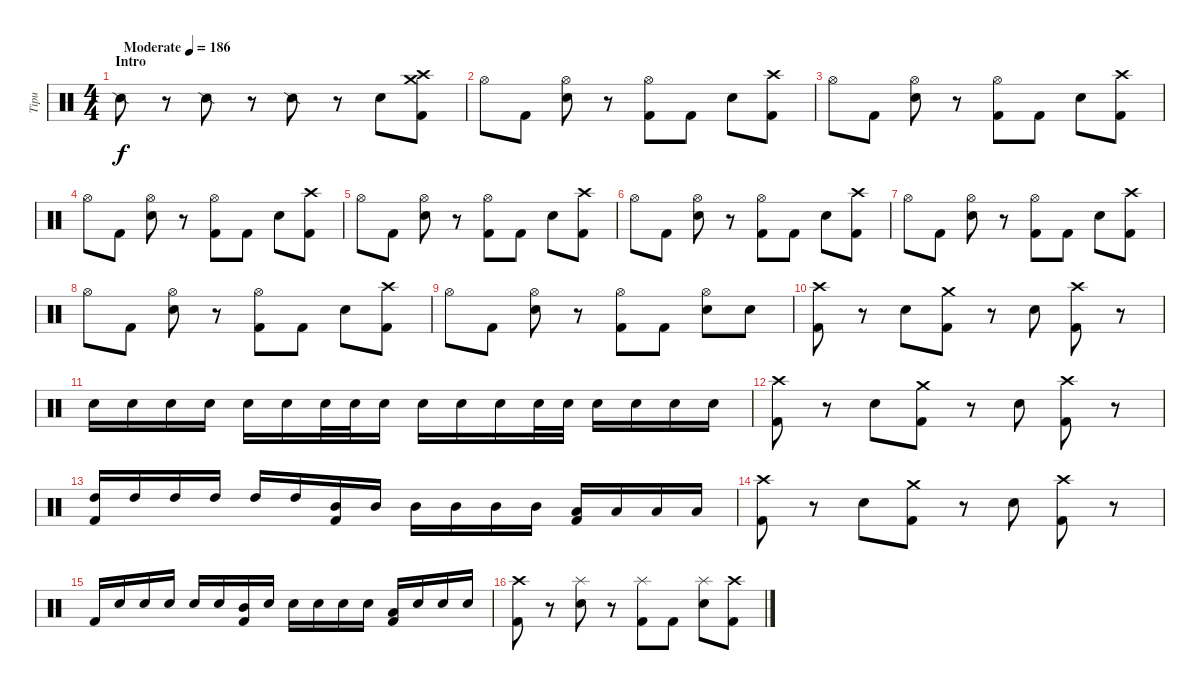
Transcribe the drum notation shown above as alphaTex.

\track ("Tipu" "Tipu") {instrument percussion}
\staff {score}
\articulation defaults
\ts (4 4)
\section ("" "Intro")
\tempo (186 "Moderate")
\clef neutral
\ks c "Snare (side stick) 2".8{dy f}
r.8 "Snare (side stick) 2".8 r.8 "Snare (side stick) 2".8 r.8 "Electric Snare (hit)".8 ("Kick (hit) 2" "Crash medium (hit)" "Crash high (hit)").8 |
"Hi-Hat (open)".8 "Kick (hit) 2".8 ("Hi-Hat (open)" "Electric Snare (hit)").8 r.8 ("Hi-Hat (open)" "Kick (hit) 2").8 "Kick (hit) 2".8 "Electric Snare (hit)".8 ("Crash high (hit)" "Kick (hit) 2").8 |
"Hi-Hat (open)".8 "Kick (hit) 2".8 ("Hi-Hat (open)" "Electric Snare (hit)").8 r.8 ("Hi-Hat (open)" "Kick (hit) 2").8 "Kick (hit) 2".8 "Electric Snare (hit)".8 ("Crash high (hit)" "Kick (hit) 2").8 |
"Hi-Hat (open)".8 "Kick (hit) 2".8 ("Hi-Hat (open)" "Electric Snare (hit)").8 r.8 ("Hi-Hat (open)" "Kick (hit) 2").8 "Kick (hit) 2".8 "Electric Snare (hit)".8 ("Crash high (hit)" "Kick (hit) 2").8 |
"Hi-Hat (open)".8 "Kick (hit) 2".8 ("Hi-Hat (open)" "Electric Snare (hit)").8 r.8 ("Hi-Hat (open)" "Kick (hit) 2").8 "Kick (hit) 2".8 "Electric Snare (hit)".8 ("Crash high (hit)" "Kick (hit) 2").8 |
"Hi-Hat (open)".8 "Kick (hit) 2".8 ("Hi-Hat (open)" "Electric Snare (hit)").8 r.8 ("Hi-Hat (open)" "Kick (hit) 2").8 "Kick (hit) 2".8 "Electric Snare (hit)".8 ("Crash high (hit)" "Kick (hit) 2").8 |
"Hi-Hat (open)".8 "Kick (hit) 2".8 ("Hi-Hat (open)" "Electric Snare (hit)").8 r.8 ("Hi-Hat (open)" "Kick (hit) 2").8 "Kick (hit) 2".8 "Electric Snare (hit)".8 ("Crash high (hit)" "Kick (hit) 2").8 |
"Hi-Hat (open)".8 "Kick (hit) 2".8 ("Hi-Hat (open)" "Electric Snare (hit)").8 r.8 ("Hi-Hat (open)" "Kick (hit) 2").8 "Kick (hit) 2".8 "Electric Snare (hit)".8 ("Crash high (hit)" "Kick (hit) 2").8 |
"Hi-Hat (open)".8 "Kick (hit) 2".8 ("Hi-Hat (open)" "Electric Snare (hit)").8 r.8 ("Hi-Hat (open)" "Kick (hit) 2").8 "Kick (hit) 2".8 ("Hi-Hat (open)" "Electric Snare (hit)").8 "Electric Snare (hit)".8 |
("Crash high (hit)" "Kick (hit) 2").8 r.8 "Electric Snare (hit)".8 ("Crash medium (hit)" "Kick (hit) 2").8 r.8 "Electric Snare (hit)".8 ("Crash high (hit)" "Kick (hit) 2").8 r.8 |
"Electric Snare (hit)".16 "Electric Snare (hit)".16 "Electric Snare (hit)".16 "Electric Snare (hit)".16 "Electric Snare (hit)".16 "Electric Snare (hit)".16 "Electric Snare (hit)".32 "Electric Snare (hit)".32 "Electric Snare (hit)".16 "Electric Snare (hit)".16 "Electric Snare (hit)".16 "Electric Snare (hit)".16 "Electric Snare (hit)".32 "Electric Snare (hit)".32 "Electric Snare (hit)".16 "Electric Snare (hit)".16 "Electric Snare (hit)".16 "Electric Snare (hit)".16 |
("Crash high (hit)" "Kick (hit) 2").8 r.8 "Electric Snare (hit)".8 ("Crash medium (hit)" "Kick (hit) 2").8 r.8 "Electric Snare (hit)".8 ("Crash high (hit)" "Kick (hit) 2").8 r.8 |
("High Tom (hit)" "Kick (hit) 2").16 "High Tom (hit)".16 "High Tom (hit)".16 "High Tom (hit)".16 "High Tom (hit)".16 "High Tom (hit)".16 ("Mid Tom (hit)" "Kick (hit) 2").16 "Mid Tom (hit)".16 "Mid Tom (hit)".16 "Mid Tom (hit)".16 "Mid Tom (hit)".16 "Mid Tom (hit)".16 ("Low Tom (hit)" "Kick (hit) 2").16 "Low Tom (hit)".16 "Low Tom (hit)".16 "Low Tom (hit)".16 |
("Crash high (hit)" "Kick (hit) 2").8 r.8 "Electric Snare (hit)".8 ("Crash medium (hit)" "Kick (hit) 2").8 r.8 "Electric Snare (hit)".8 ("Crash high (hit)" "Kick (hit) 2").8 r.8 |
"Kick (hit) 2".16 "Electric Snare (hit)".16 "Electric Snare (hit)".16 "Electric Snare (hit)".16 "Electric Snare (hit)".16 "Electric Snare (hit)".16 ("Mid Tom (hit)" "Kick (hit) 2").16 "Electric Snare (hit)".16 "Electric Snare (hit)".16 "Electric Snare (hit)".16 "Electric Snare (hit)".16 "Electric Snare (hit)".16 ("Low Tom (hit)" "Kick (hit) 2").16 "Electric Snare (hit)".16 "Electric Snare (hit)".16 "Electric Snare (hit)".16 |
("Crash high (hit)" "Kick (hit) 2").8 r.8 ("Splash (hit)" "Electric Snare (hit)").8 r.8 ("Splash (hit)" "Kick (hit) 2").8 "Kick (hit) 2".8 ("Splash (hit)" "Electric Snare (hit)").8 ("Crash high (hit)" "Kick (hit) 2").8
